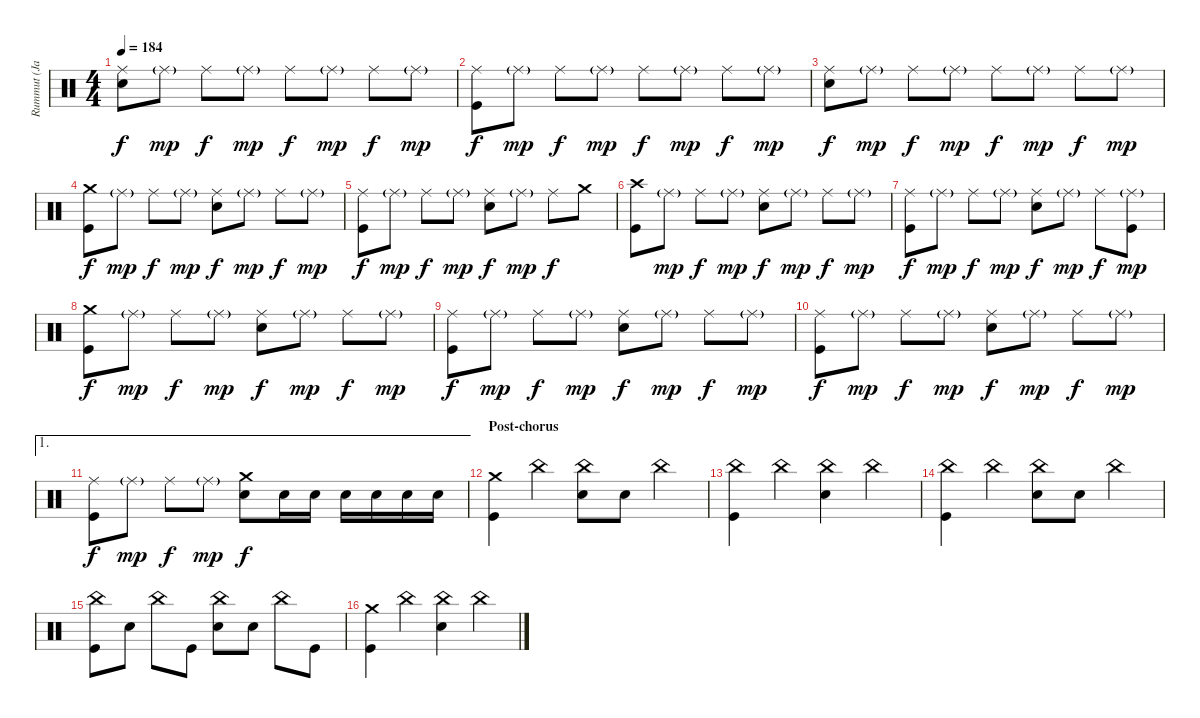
\track ("Rummut (Janne)" "Rummut (Ja") {instrument percussion}
\staff {score}
\articulation defaults
\ts (4 4)
\tempo 184
\clef neutral
\ks c
("Ride (middle)" "Snare (hit) 2").8{dy f} "Ride (middle)"{g}.8{dy mp} "Ride (middle)".8{dy f} "Ride (middle)"{g}.8{dy mp} "Ride (middle)".8{dy f} "Ride (middle)"{g}.8{dy mp} "Ride (middle)".8{dy f} "Ride (middle)"{g}.8{dy mp} |
("Ride (middle)" "Kick (hit)").8{dy f} "Ride (middle)"{g}.8{dy mp} "Ride (middle)".8{dy f} "Ride (middle)"{g}.8{dy mp} "Ride (middle)".8{dy f} "Ride (middle)"{g}.8{dy mp} "Ride (middle)".8{dy f} "Ride (middle)"{g}.8{dy mp} |
("Ride (middle)" "Snare (hit) 2").8{dy f} "Ride (middle)"{g}.8{dy mp} "Ride (middle)".8{dy f} "Ride (middle)"{g}.8{dy mp} "Ride (middle)".8{dy f} "Ride (middle)"{g}.8{dy mp} "Ride (middle)".8{dy f} "Ride (middle)"{g}.8{dy mp} |
("Crash medium (hit)" "Kick (hit)").8{dy f} "Ride (middle)"{g}.8{dy mp} "Ride (middle)".8{dy f} "Ride (middle)"{g}.8{dy mp} ("Ride (middle)" "Snare (hit) 2").8{dy f} "Ride (middle)"{g}.8{dy mp} "Ride (middle)".8{dy f} "Ride (middle)"{g}.8{dy mp} |
("Ride (middle)" "Kick (hit)").8{dy f} "Ride (middle)"{g}.8{dy mp} "Ride (middle)".8{dy f} "Ride (middle)"{g}.8{dy mp} ("Ride (middle)" "Snare (hit) 2").8{dy f} "Ride (middle)"{g}.8{dy mp} "Ride (middle)".8{dy f} "Crash medium (hit)".8 |
("Crash high (hit)" "Kick (hit)").8 "Ride (middle)"{g}.8{dy mp} "Ride (middle)".8{dy f} "Ride (middle)"{g}.8{dy mp} ("Ride (middle)" "Snare (hit) 2").8{dy f} "Ride (middle)"{g}.8{dy mp} "Ride (middle)".8{dy f} "Ride (middle)"{g}.8{dy mp} |
("Ride (middle)" "Kick (hit)").8{dy f} "Ride (middle)"{g}.8{dy mp} "Ride (middle)".8{dy f} "Ride (middle)"{g}.8{dy mp} ("Ride (middle)" "Snare (hit) 2").8{dy f} "Ride (middle)"{g}.8{dy mp} "Ride (middle)".8{dy f} ("Ride (middle)"{g} "Kick (hit)").8{dy mp} |
("Crash medium (hit)" "Kick (hit)").8{dy f} "Ride (middle)"{g}.8{dy mp} "Ride (middle)".8{dy f} "Ride (middle)"{g}.8{dy mp} ("Ride (middle)" "Snare (hit) 2").8{dy f} "Ride (middle)"{g}.8{dy mp} "Ride (middle)".8{dy f} "Ride (middle)"{g}.8{dy mp} |
("Ride (middle)" "Kick (hit)").8{dy f} "Ride (middle)"{g}.8{dy mp} "Ride (middle)".8{dy f} "Ride (middle)"{g}.8{dy mp} ("Ride (middle)" "Snare (hit) 2").8{dy f} "Ride (middle)"{g}.8{dy mp} "Ride (middle)".8{dy f} "Ride (middle)"{g}.8{dy mp} |
("Ride (middle)" "Kick (hit)").8{dy f} "Ride (middle)"{g}.8{dy mp} "Ride (middle)".8{dy f} "Ride (middle)"{g}.8{dy mp} ("Ride (middle)" "Snare (hit) 2").8{dy f} "Ride (middle)"{g}.8{dy mp} "Ride (middle)".8{dy f} "Ride (middle)"{g}.8{dy mp} |
\ae 1
("Ride (middle)" "Kick (hit)").8{dy f} "Ride (middle)"{g}.8{dy mp} "Ride (middle)".8{dy f} "Ride (middle)"{g}.8{dy mp} ("Crash medium (hit)" "Snare (hit) 2").8{dy f} "Snare (hit) 2".16 "Snare (hit) 2".16 "Snare (hit) 2".16 "Snare (hit) 2".16 "Snare (hit) 2".16 "Snare (hit) 2".16 |
\section ("" "Post-chorus")
("Crash medium (hit)" "Kick (hit)").4 "China (hit)".4 ("China (hit)" "Snare (hit) 2").8 "Snare (hit) 2".8 "China (hit)".4 |
("China (hit)" "Kick (hit)").4 "China (hit)".4 ("China (hit)" "Snare (hit) 2").4 "China (hit)".4 |
("China (hit)" "Kick (hit)").4 "China (hit)".4 ("China (hit)" "Snare (hit) 2").8 "Snare (hit) 2".8 "China (hit)".4 |
("China (hit)" "Kick (hit)").8 "Snare (hit) 2".8 "China (hit)".8 "Kick (hit)".8 ("China (hit)" "Snare (hit) 2").8 "Snare (hit) 2".8 "China (hit)".8 "Kick (hit)".8 |
("Crash medium (hit)" "Kick (hit)").4 "China (hit)".4 ("China (hit)" "Snare (hit) 2").4 "China (hit)".4
